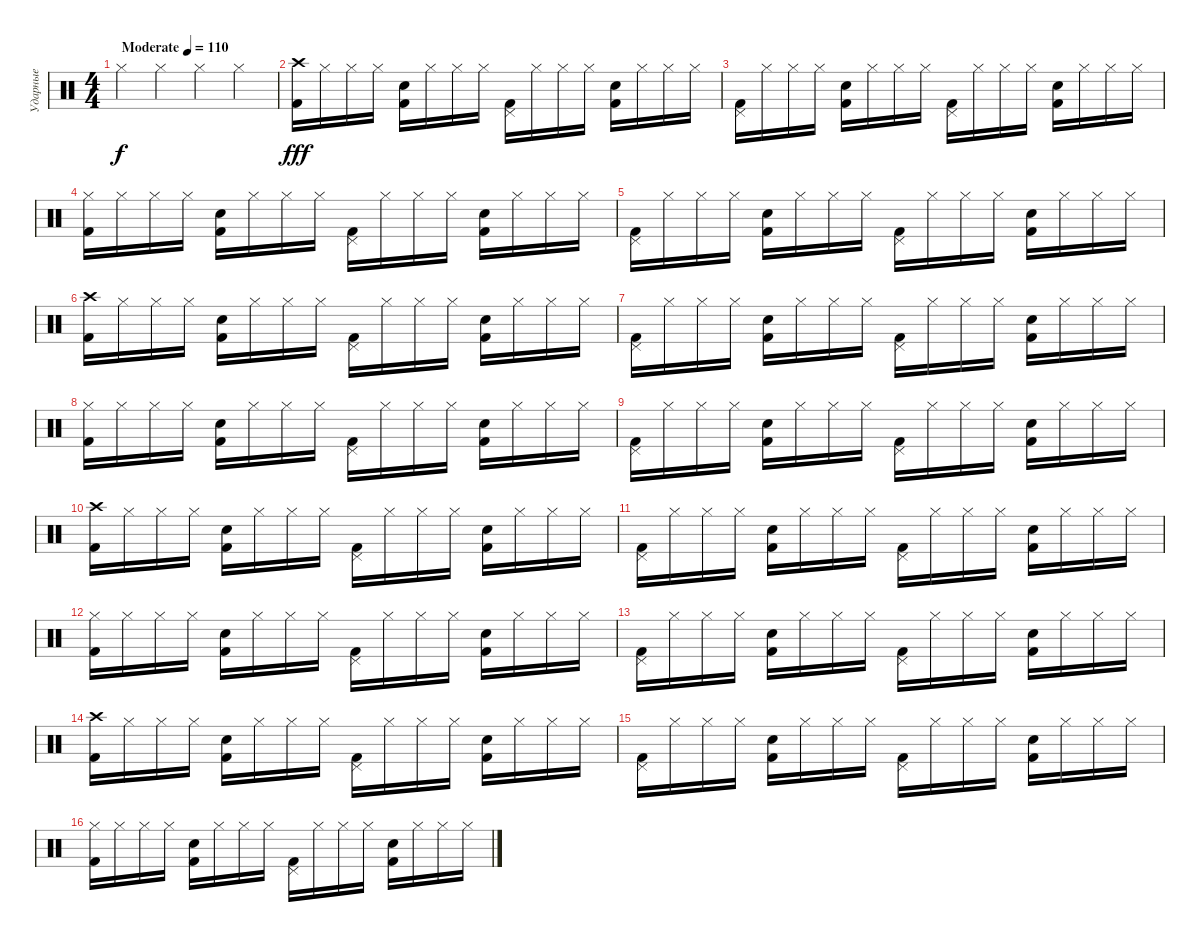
\track ("Ударные" "Ударные") {instrument percussion}
\staff {score}
\articulation defaults
\ts (4 4)
\tempo (110 "Moderate")
\clef neutral
\ks c "Hi-Hat (closed)".4{dy f} "Hi-Hat (closed)".4 "Hi-Hat (closed)".4 "Hi-Hat (closed)".4
|
("Crash high (hit)" "Kick (hit) 2").16{dy fff} "Hi-Hat (closed)".16 "Hi-Hat (closed)".16 "Hi-Hat (closed)".16 ("Snare (hit) 2" "Kick (hit) 2").16 "Hi-Hat (closed)".16 "Hi-Hat (closed)".16 "Hi-Hat (closed)".16 ("Pedal Hi-Hat (hit)" "Kick (hit) 2").16 "Hi-Hat (closed)".16 "Hi-Hat (closed)".16 "Hi-Hat (closed)".16 ("Snare (hit) 2" "Kick (hit) 2").16 "Hi-Hat (closed)".16 "Hi-Hat (closed)".16 "Hi-Hat (closed)".16 |
("Pedal Hi-Hat (hit)" "Kick (hit) 2").16 "Hi-Hat (closed)".16 "Hi-Hat (closed)".16 "Hi-Hat (closed)".16 ("Snare (hit) 2" "Kick (hit) 2").16 "Hi-Hat (closed)".16 "Hi-Hat (closed)".16 "Hi-Hat (closed)".16 ("Pedal Hi-Hat (hit)" "Kick (hit) 2").16 "Hi-Hat (closed)".16 "Hi-Hat (closed)".16 "Hi-Hat (closed)".16 ("Snare (hit) 2" "Kick (hit) 2").16 "Hi-Hat (closed)".16 "Hi-Hat (closed)".16 "Hi-Hat (closed)".16 |
("Hi-Hat (closed)" "Kick (hit) 2").16 "Hi-Hat (closed)".16 "Hi-Hat (closed)".16 "Hi-Hat (closed)".16 ("Snare (hit) 2" "Kick (hit) 2").16 "Hi-Hat (closed)".16 "Hi-Hat (closed)".16 "Hi-Hat (closed)".16 ("Pedal Hi-Hat (hit)" "Kick (hit) 2").16 "Hi-Hat (closed)".16 "Hi-Hat (closed)".16 "Hi-Hat (closed)".16 ("Snare (hit) 2" "Kick (hit) 2").16 "Hi-Hat (closed)".16 "Hi-Hat (closed)".16 "Hi-Hat (closed)".16 |
("Pedal Hi-Hat (hit)" "Kick (hit) 2").16 "Hi-Hat (closed)".16 "Hi-Hat (closed)".16 "Hi-Hat (closed)".16 ("Snare (hit) 2" "Kick (hit) 2").16 "Hi-Hat (closed)".16 "Hi-Hat (closed)".16 "Hi-Hat (closed)".16 ("Pedal Hi-Hat (hit)" "Kick (hit) 2").16 "Hi-Hat (closed)".16 "Hi-Hat (closed)".16 "Hi-Hat (closed)".16 ("Snare (hit) 2" "Kick (hit) 2").16 "Hi-Hat (closed)".16 "Hi-Hat (closed)".16 "Hi-Hat (closed)".16 |
("Crash high (hit)" "Kick (hit) 2").16 "Hi-Hat (closed)".16 "Hi-Hat (closed)".16 "Hi-Hat (closed)".16 ("Snare (hit) 2" "Kick (hit) 2").16 "Hi-Hat (closed)".16 "Hi-Hat (closed)".16 "Hi-Hat (closed)".16 ("Pedal Hi-Hat (hit)" "Kick (hit) 2").16 "Hi-Hat (closed)".16 "Hi-Hat (closed)".16 "Hi-Hat (closed)".16 ("Snare (hit) 2" "Kick (hit) 2").16 "Hi-Hat (closed)".16 "Hi-Hat (closed)".16 "Hi-Hat (closed)".16 |
("Pedal Hi-Hat (hit)" "Kick (hit) 2").16 "Hi-Hat (closed)".16 "Hi-Hat (closed)".16 "Hi-Hat (closed)".16 ("Snare (hit) 2" "Kick (hit) 2").16 "Hi-Hat (closed)".16 "Hi-Hat (closed)".16 "Hi-Hat (closed)".16 ("Pedal Hi-Hat (hit)" "Kick (hit) 2").16 "Hi-Hat (closed)".16 "Hi-Hat (closed)".16 "Hi-Hat (closed)".16 ("Snare (hit) 2" "Kick (hit) 2").16 "Hi-Hat (closed)".16 "Hi-Hat (closed)".16 "Hi-Hat (closed)".16 |
("Hi-Hat (closed)" "Kick (hit) 2").16 "Hi-Hat (closed)".16 "Hi-Hat (closed)".16 "Hi-Hat (closed)".16 ("Snare (hit) 2" "Kick (hit) 2").16 "Hi-Hat (closed)".16 "Hi-Hat (closed)".16 "Hi-Hat (closed)".16 ("Pedal Hi-Hat (hit)" "Kick (hit) 2").16 "Hi-Hat (closed)".16 "Hi-Hat (closed)".16 "Hi-Hat (closed)".16 ("Snare (hit) 2" "Kick (hit) 2").16 "Hi-Hat (closed)".16 "Hi-Hat (closed)".16 "Hi-Hat (closed)".16 |
("Pedal Hi-Hat (hit)" "Kick (hit) 2").16 "Hi-Hat (closed)".16 "Hi-Hat (closed)".16 "Hi-Hat (closed)".16 ("Snare (hit) 2" "Kick (hit) 2").16 "Hi-Hat (closed)".16 "Hi-Hat (closed)".16 "Hi-Hat (closed)".16 ("Pedal Hi-Hat (hit)" "Kick (hit) 2").16 "Hi-Hat (closed)".16 "Hi-Hat (closed)".16 "Hi-Hat (closed)".16 ("Snare (hit) 2" "Kick (hit) 2").16 "Hi-Hat (closed)".16 "Hi-Hat (closed)".16 "Hi-Hat (closed)".16 |
("Crash high (hit)" "Kick (hit) 2").16 "Hi-Hat (closed)".16 "Hi-Hat (closed)".16 "Hi-Hat (closed)".16 ("Snare (hit) 2" "Kick (hit) 2").16 "Hi-Hat (closed)".16 "Hi-Hat (closed)".16 "Hi-Hat (closed)".16 ("Pedal Hi-Hat (hit)" "Kick (hit) 2").16 "Hi-Hat (closed)".16 "Hi-Hat (closed)".16 "Hi-Hat (closed)".16 ("Snare (hit) 2" "Kick (hit) 2").16 "Hi-Hat (closed)".16 "Hi-Hat (closed)".16 "Hi-Hat (closed)".16 |
("Pedal Hi-Hat (hit)" "Kick (hit) 2").16 "Hi-Hat (closed)".16 "Hi-Hat (closed)".16 "Hi-Hat (closed)".16 ("Snare (hit) 2" "Kick (hit) 2").16 "Hi-Hat (closed)".16 "Hi-Hat (closed)".16 "Hi-Hat (closed)".16 ("Pedal Hi-Hat (hit)" "Kick (hit) 2").16 "Hi-Hat (closed)".16 "Hi-Hat (closed)".16 "Hi-Hat (closed)".16 ("Snare (hit) 2" "Kick (hit) 2").16 "Hi-Hat (closed)".16 "Hi-Hat (closed)".16 "Hi-Hat (closed)".16 |
("Hi-Hat (closed)" "Kick (hit) 2").16 "Hi-Hat (closed)".16 "Hi-Hat (closed)".16 "Hi-Hat (closed)".16 ("Snare (hit) 2" "Kick (hit) 2").16 "Hi-Hat (closed)".16 "Hi-Hat (closed)".16 "Hi-Hat (closed)".16 ("Pedal Hi-Hat (hit)" "Kick (hit) 2").16 "Hi-Hat (closed)".16 "Hi-Hat (closed)".16 "Hi-Hat (closed)".16 ("Snare (hit) 2" "Kick (hit) 2").16 "Hi-Hat (closed)".16 "Hi-Hat (closed)".16 "Hi-Hat (closed)".16 |
("Pedal Hi-Hat (hit)" "Kick (hit) 2").16 "Hi-Hat (closed)".16 "Hi-Hat (closed)".16 "Hi-Hat (closed)".16 ("Snare (hit) 2" "Kick (hit) 2").16 "Hi-Hat (closed)".16 "Hi-Hat (closed)".16 "Hi-Hat (closed)".16 ("Pedal Hi-Hat (hit)" "Kick (hit) 2").16 "Hi-Hat (closed)".16 "Hi-Hat (closed)".16 "Hi-Hat (closed)".16 ("Snare (hit) 2" "Kick (hit) 2").16 "Hi-Hat (closed)".16 "Hi-Hat (closed)".16 "Hi-Hat (closed)".16 |
("Crash high (hit)" "Kick (hit) 2").16 "Hi-Hat (closed)".16 "Hi-Hat (closed)".16 "Hi-Hat (closed)".16 ("Snare (hit) 2" "Kick (hit) 2").16 "Hi-Hat (closed)".16 "Hi-Hat (closed)".16 "Hi-Hat (closed)".16 ("Pedal Hi-Hat (hit)" "Kick (hit) 2").16 "Hi-Hat (closed)".16 "Hi-Hat (closed)".16 "Hi-Hat (closed)".16 ("Snare (hit) 2" "Kick (hit) 2").16 "Hi-Hat (closed)".16 "Hi-Hat (closed)".16 "Hi-Hat (closed)".16 |
("Pedal Hi-Hat (hit)" "Kick (hit) 2").16 "Hi-Hat (closed)".16 "Hi-Hat (closed)".16 "Hi-Hat (closed)".16 ("Snare (hit) 2" "Kick (hit) 2").16 "Hi-Hat (closed)".16 "Hi-Hat (closed)".16 "Hi-Hat (closed)".16 ("Pedal Hi-Hat (hit)" "Kick (hit) 2").16 "Hi-Hat (closed)".16 "Hi-Hat (closed)".16 "Hi-Hat (closed)".16 ("Snare (hit) 2" "Kick (hit) 2").16 "Hi-Hat (closed)".16 "Hi-Hat (closed)".16 "Hi-Hat (closed)".16 |
("Hi-Hat (closed)" "Kick (hit) 2").16 "Hi-Hat (closed)".16 "Hi-Hat (closed)".16 "Hi-Hat (closed)".16 ("Snare (hit) 2" "Kick (hit) 2").16 "Hi-Hat (closed)".16 "Hi-Hat (closed)".16 "Hi-Hat (closed)".16 ("Pedal Hi-Hat (hit)" "Kick (hit) 2").16 "Hi-Hat (closed)".16 "Hi-Hat (closed)".16 "Hi-Hat (closed)".16 ("Snare (hit) 2" "Kick (hit) 2").16 "Hi-Hat (closed)".16 "Hi-Hat (closed)".16 "Hi-Hat (closed)".16
